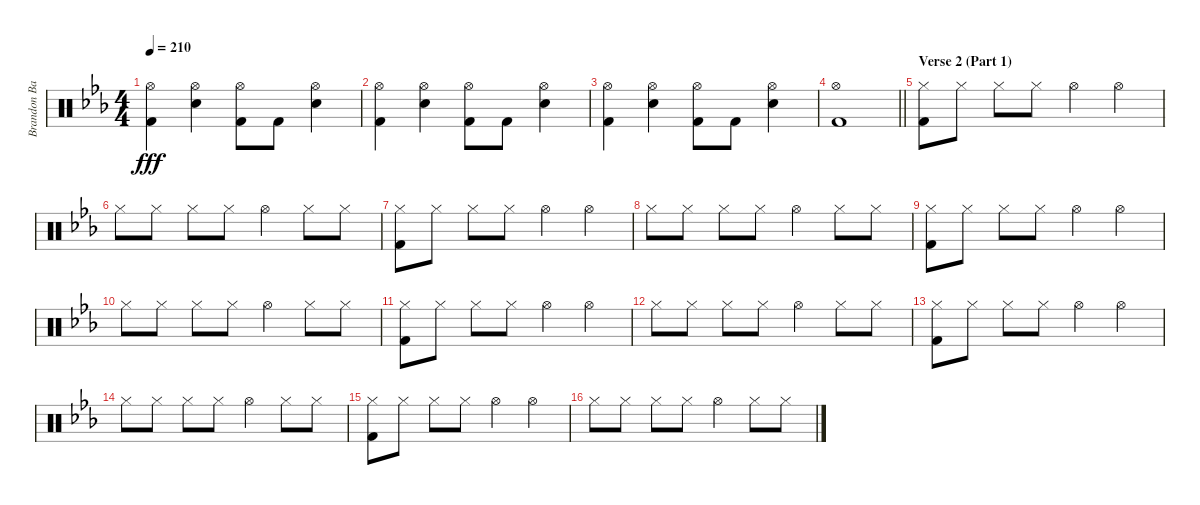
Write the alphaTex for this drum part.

\track ("Brandon Barnes" "Brandon Ba") {instrument percussion}
\staff {score}
\articulation defaults
\ts (4 4)
\tempo 210
\clef neutral
\ks eb
("Hi-Hat (open)" "Kick (hit) 2").4{dy fff} ("Hi-Hat (open)" "Snare (hit) 2").4 ("Hi-Hat (open)" "Kick (hit) 2").8 "Kick (hit) 2".8 ("Hi-Hat (open)" "Snare (hit) 2").4 |
("Hi-Hat (open)" "Kick (hit) 2").4 ("Hi-Hat (open)" "Snare (hit) 2").4 ("Hi-Hat (open)" "Kick (hit) 2").8 "Kick (hit) 2".8 ("Hi-Hat (open)" "Snare (hit) 2").4 |
("Hi-Hat (open)" "Kick (hit) 2").4 ("Hi-Hat (open)" "Snare (hit) 2").4 ("Hi-Hat (open)" "Kick (hit) 2").8 "Kick (hit) 2".8 ("Hi-Hat (open)" "Snare (hit) 2").4 |
\barLineRight lightlight
("Hi-Hat (open)" "Kick (hit) 2").1 |
\section ("" "Verse 2 (Part 1)")
("Hi-Hat (closed)" "Kick (hit) 2").8 "Hi-Hat (closed)".8 "Hi-Hat (closed)".8 "Hi-Hat (closed)".8 "Hi-Hat (open)".4 "Hi-Hat (open)".4 |
"Hi-Hat (closed)".8 "Hi-Hat (closed)".8 "Hi-Hat (closed)".8 "Hi-Hat (closed)".8 "Hi-Hat (open)".4 "Hi-Hat (closed)".8 "Hi-Hat (closed)".8 |
("Hi-Hat (closed)" "Kick (hit) 2").8 "Hi-Hat (closed)".8 "Hi-Hat (closed)".8 "Hi-Hat (closed)".8 "Hi-Hat (open)".4 "Hi-Hat (open)".4 |
"Hi-Hat (closed)".8 "Hi-Hat (closed)".8 "Hi-Hat (closed)".8 "Hi-Hat (closed)".8 "Hi-Hat (open)".4 "Hi-Hat (closed)".8 "Hi-Hat (closed)".8 |
("Hi-Hat (closed)" "Kick (hit) 2").8 "Hi-Hat (closed)".8 "Hi-Hat (closed)".8 "Hi-Hat (closed)".8 "Hi-Hat (open)".4 "Hi-Hat (open)".4 |
"Hi-Hat (closed)".8 "Hi-Hat (closed)".8 "Hi-Hat (closed)".8 "Hi-Hat (closed)".8 "Hi-Hat (open)".4 "Hi-Hat (closed)".8 "Hi-Hat (closed)".8 |
("Hi-Hat (closed)" "Kick (hit) 2").8 "Hi-Hat (closed)".8 "Hi-Hat (closed)".8 "Hi-Hat (closed)".8 "Hi-Hat (open)".4 "Hi-Hat (open)".4 |
"Hi-Hat (closed)".8 "Hi-Hat (closed)".8 "Hi-Hat (closed)".8 "Hi-Hat (closed)".8 "Hi-Hat (open)".4 "Hi-Hat (closed)".8 "Hi-Hat (closed)".8 |
("Hi-Hat (closed)" "Kick (hit) 2").8 "Hi-Hat (closed)".8 "Hi-Hat (closed)".8 "Hi-Hat (closed)".8 "Hi-Hat (open)".4 "Hi-Hat (open)".4 |
"Hi-Hat (closed)".8 "Hi-Hat (closed)".8 "Hi-Hat (closed)".8 "Hi-Hat (closed)".8 "Hi-Hat (open)".4 "Hi-Hat (closed)".8 "Hi-Hat (closed)".8 |
("Hi-Hat (closed)" "Kick (hit) 2").8 "Hi-Hat (closed)".8 "Hi-Hat (closed)".8 "Hi-Hat (closed)".8 "Hi-Hat (open)".4 "Hi-Hat (open)".4 |
"Hi-Hat (closed)".8 "Hi-Hat (closed)".8 "Hi-Hat (closed)".8 "Hi-Hat (closed)".8 "Hi-Hat (open)".4 "Hi-Hat (closed)".8 "Hi-Hat (closed)".8
